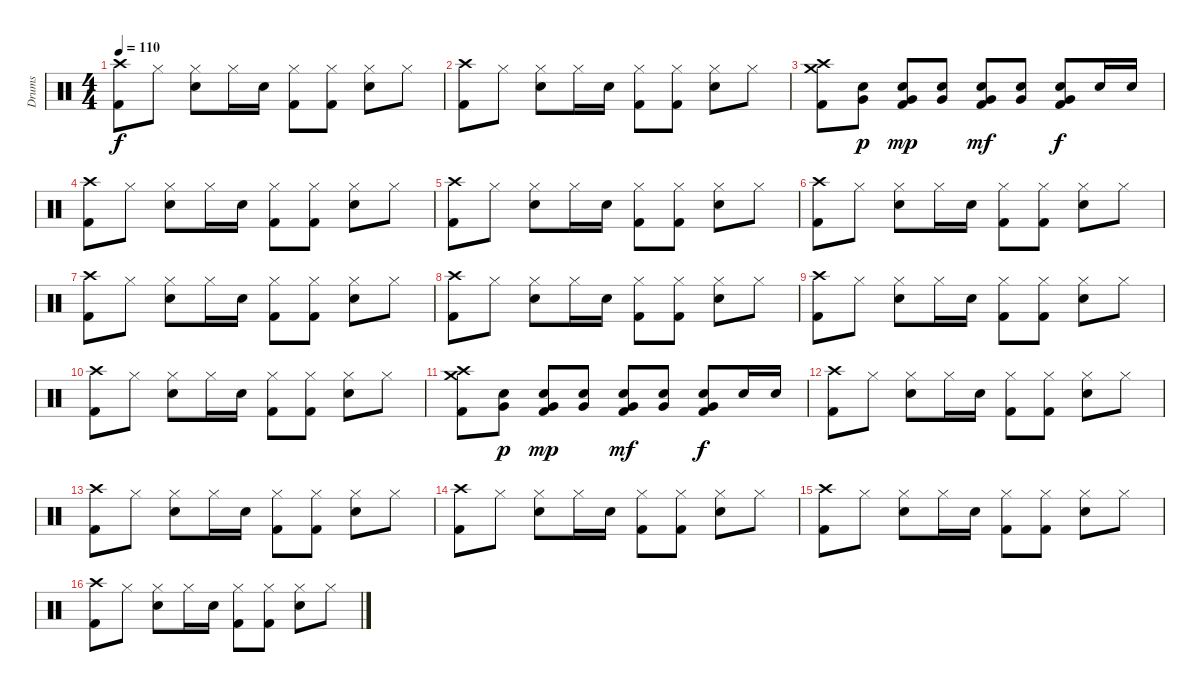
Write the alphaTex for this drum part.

\track ("Drums" "Drums") {instrument percussion}
\staff {score}
\articulation defaults
\ts (4 4)
\tempo 110
\clef neutral
\ks c
("Crash high (hit)" "Kick (hit) 2").8{dy f} "Hi-Hat (closed)".8 ("Hi-Hat (closed)" "Snare (hit) 2").8 "Hi-Hat (closed)".16 "Snare (hit) 2".16 ("Hi-Hat (closed)" "Kick (hit) 2").8 ("Hi-Hat (closed)" "Kick (hit) 2").8 ("Hi-Hat (closed)" "Snare (hit) 2").8 "Hi-Hat (closed)".8 |
("Crash high (hit)" "Kick (hit) 2").8 "Hi-Hat (closed)".8 ("Hi-Hat (closed)" "Snare (hit) 2").8 "Hi-Hat (closed)".16 "Snare (hit) 2".16 ("Hi-Hat (closed)" "Kick (hit) 2").8 ("Hi-Hat (closed)" "Kick (hit) 2").8 ("Hi-Hat (closed)" "Snare (hit) 2").8 "Hi-Hat (closed)".8 |
("Crash high (hit)" "Crash medium (hit)" "Kick (hit) 2").8 ("Very Low Tom (hit)" "Snare (hit) 2").8{dy p} ("Very Low Tom (hit)" "Snare (hit) 2" "Kick (hit) 2").8{dy mp} ("Very Low Tom (hit)" "Snare (hit) 2").8 ("Very Low Tom (hit)" "Snare (hit) 2" "Kick (hit) 2").8{dy mf} ("Very Low Tom (hit)" "Snare (hit) 2").8 ("Very Low Tom (hit)" "Snare (hit) 2" "Kick (hit) 2").8{dy f} "Snare (hit) 2".16 "Snare (hit) 2".16 |
("Crash high (hit)" "Kick (hit) 2").8 "Hi-Hat (closed)".8 ("Hi-Hat (closed)" "Snare (hit) 2").8 "Hi-Hat (closed)".16 "Snare (hit) 2".16 ("Hi-Hat (closed)" "Kick (hit) 2").8 ("Hi-Hat (closed)" "Kick (hit) 2").8 ("Hi-Hat (closed)" "Snare (hit) 2").8 "Hi-Hat (closed)".8 |
("Crash high (hit)" "Kick (hit) 2").8 "Hi-Hat (closed)".8 ("Hi-Hat (closed)" "Snare (hit) 2").8 "Hi-Hat (closed)".16 "Snare (hit) 2".16 ("Hi-Hat (closed)" "Kick (hit) 2").8 ("Hi-Hat (closed)" "Kick (hit) 2").8 ("Hi-Hat (closed)" "Snare (hit) 2").8 "Hi-Hat (closed)".8 |
("Crash high (hit)" "Kick (hit) 2").8 "Hi-Hat (closed)".8 ("Hi-Hat (closed)" "Snare (hit) 2").8 "Hi-Hat (closed)".16 "Snare (hit) 2".16 ("Hi-Hat (closed)" "Kick (hit) 2").8 ("Hi-Hat (closed)" "Kick (hit) 2").8 ("Hi-Hat (closed)" "Snare (hit) 2").8 "Hi-Hat (closed)".8 |
("Crash high (hit)" "Kick (hit) 2").8 "Hi-Hat (closed)".8 ("Hi-Hat (closed)" "Snare (hit) 2").8 "Hi-Hat (closed)".16 "Snare (hit) 2".16 ("Hi-Hat (closed)" "Kick (hit) 2").8 ("Hi-Hat (closed)" "Kick (hit) 2").8 ("Hi-Hat (closed)" "Snare (hit) 2").8 "Hi-Hat (closed)".8 |
("Crash high (hit)" "Kick (hit) 2").8 "Hi-Hat (closed)".8 ("Hi-Hat (closed)" "Snare (hit) 2").8 "Hi-Hat (closed)".16 "Snare (hit) 2".16 ("Hi-Hat (closed)" "Kick (hit) 2").8 ("Hi-Hat (closed)" "Kick (hit) 2").8 ("Hi-Hat (closed)" "Snare (hit) 2").8 "Hi-Hat (closed)".8 |
("Crash high (hit)" "Kick (hit) 2").8 "Hi-Hat (closed)".8 ("Hi-Hat (closed)" "Snare (hit) 2").8 "Hi-Hat (closed)".16 "Snare (hit) 2".16 ("Hi-Hat (closed)" "Kick (hit) 2").8 ("Hi-Hat (closed)" "Kick (hit) 2").8 ("Hi-Hat (closed)" "Snare (hit) 2").8 "Hi-Hat (closed)".8 |
("Crash high (hit)" "Kick (hit) 2").8 "Hi-Hat (closed)".8 ("Hi-Hat (closed)" "Snare (hit) 2").8 "Hi-Hat (closed)".16 "Snare (hit) 2".16 ("Hi-Hat (closed)" "Kick (hit) 2").8 ("Hi-Hat (closed)" "Kick (hit) 2").8 ("Hi-Hat (closed)" "Snare (hit) 2").8 "Hi-Hat (closed)".8 |
("Crash high (hit)" "Crash medium (hit)" "Kick (hit) 2").8 ("Very Low Tom (hit)" "Snare (hit) 2").8{dy p} ("Very Low Tom (hit)" "Snare (hit) 2" "Kick (hit) 2").8{dy mp} ("Very Low Tom (hit)" "Snare (hit) 2").8 ("Very Low Tom (hit)" "Snare (hit) 2" "Kick (hit) 2").8{dy mf} ("Very Low Tom (hit)" "Snare (hit) 2").8 ("Very Low Tom (hit)" "Snare (hit) 2" "Kick (hit) 2").8{dy f} "Snare (hit) 2".16 "Snare (hit) 2".16 |
("Crash high (hit)" "Kick (hit) 2").8 "Hi-Hat (closed)".8 ("Hi-Hat (closed)" "Snare (hit) 2").8 "Hi-Hat (closed)".16 "Snare (hit) 2".16 ("Hi-Hat (closed)" "Kick (hit) 2").8 ("Hi-Hat (closed)" "Kick (hit) 2").8 ("Hi-Hat (closed)" "Snare (hit) 2").8 "Hi-Hat (closed)".8 |
("Crash high (hit)" "Kick (hit) 2").8 "Hi-Hat (closed)".8 ("Hi-Hat (closed)" "Snare (hit) 2").8 "Hi-Hat (closed)".16 "Snare (hit) 2".16 ("Hi-Hat (closed)" "Kick (hit) 2").8 ("Hi-Hat (closed)" "Kick (hit) 2").8 ("Hi-Hat (closed)" "Snare (hit) 2").8 "Hi-Hat (closed)".8 |
("Crash high (hit)" "Kick (hit) 2").8 "Hi-Hat (closed)".8 ("Hi-Hat (closed)" "Snare (hit) 2").8 "Hi-Hat (closed)".16 "Snare (hit) 2".16 ("Hi-Hat (closed)" "Kick (hit) 2").8 ("Hi-Hat (closed)" "Kick (hit) 2").8 ("Hi-Hat (closed)" "Snare (hit) 2").8 "Hi-Hat (closed)".8 |
("Crash high (hit)" "Kick (hit) 2").8 "Hi-Hat (closed)".8 ("Hi-Hat (closed)" "Snare (hit) 2").8 "Hi-Hat (closed)".16 "Snare (hit) 2".16 ("Hi-Hat (closed)" "Kick (hit) 2").8 ("Hi-Hat (closed)" "Kick (hit) 2").8 ("Hi-Hat (closed)" "Snare (hit) 2").8 "Hi-Hat (closed)".8 |
("Crash high (hit)" "Kick (hit) 2").8 "Hi-Hat (closed)".8 ("Hi-Hat (closed)" "Snare (hit) 2").8 "Hi-Hat (closed)".16 "Snare (hit) 2".16 ("Hi-Hat (closed)" "Kick (hit) 2").8 ("Hi-Hat (closed)" "Kick (hit) 2").8 ("Hi-Hat (closed)" "Snare (hit) 2").8 "Hi-Hat (closed)".8
